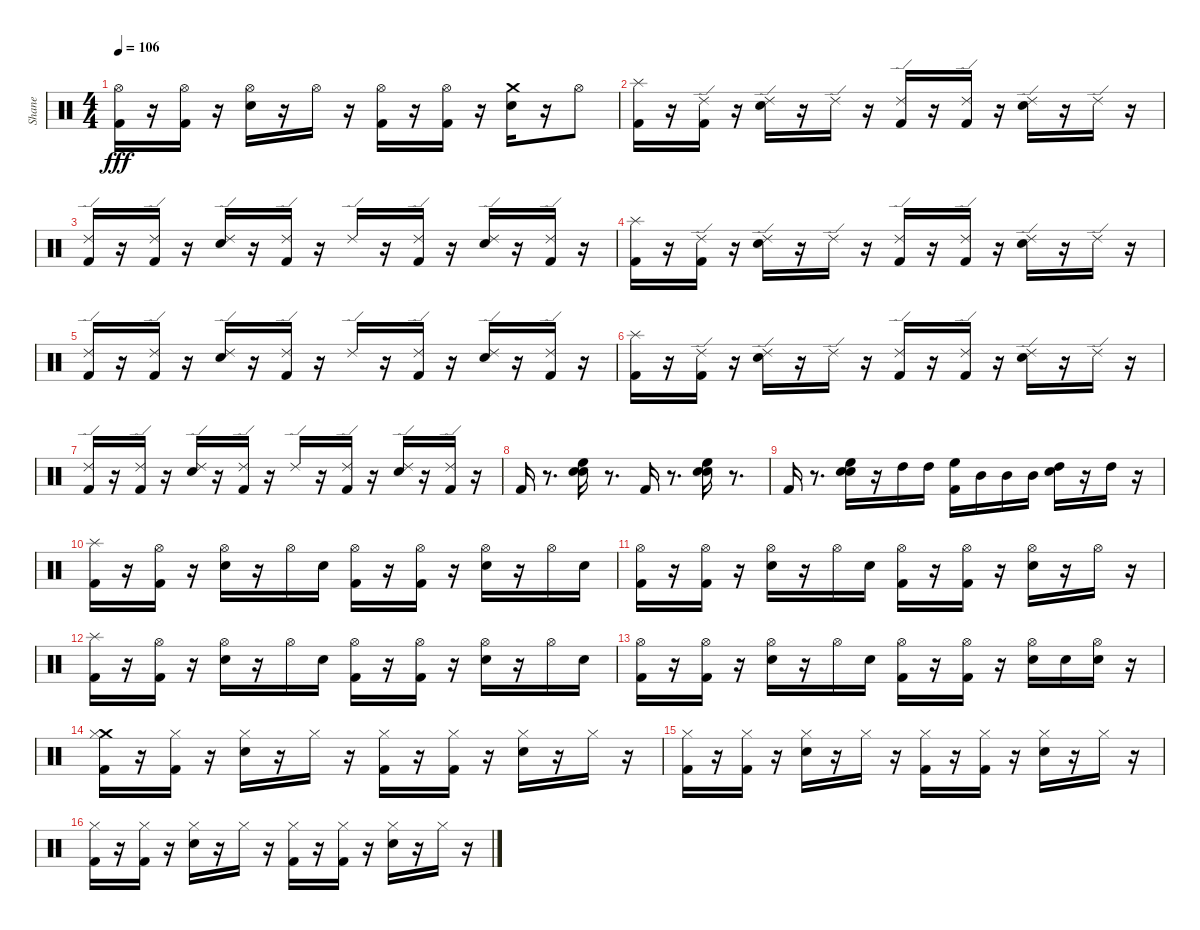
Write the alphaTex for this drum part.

\track ("Shane" "Shane") {instrument percussion}
\staff {score}
\articulation defaults
\ts (4 4)
\tempo 106
\clef neutral
\ks c
("Kick (hit) 2" "Hi-Hat (open)").16{dy fff} r.16 ("Kick (hit) 2" "Hi-Hat (open)").16 r.16 ("Snare (hit) 2" "Hi-Hat (open)").16 r.16 "Hi-Hat (open)".16 r.16 ("Kick (hit) 2" "Hi-Hat (open)").16 r.16 ("Kick (hit) 2" "Hi-Hat (open)").16 r.16 ("Snare (hit) 2" "Crash medium (hit)").16 r.16 "Hi-Hat (open)".8 |
("Splash (hit)" "Kick (hit) 2").16 r.16 ("Kick (hit) 2" "Ride (edge) 2").16 r.16 ("Snare (hit) 2" "Ride (edge) 2").16 r.16 "Ride (edge) 2".16 r.16 ("Kick (hit) 2" "Ride (edge) 2").16 r.16 ("Kick (hit) 2" "Ride (edge) 2").16 r.16 ("Snare (hit) 2" "Ride (edge) 2").16 r.16 "Ride (edge) 2".16 r.16 |
("Ride (edge) 2" "Kick (hit) 2").16 r.16 ("Kick (hit) 2" "Ride (edge) 2").16 r.16 ("Snare (hit) 2" "Ride (edge) 2").16 r.16 ("Kick (hit) 2" "Ride (edge) 2").16 r.16 "Ride (edge) 2".16 r.16 ("Kick (hit) 2" "Ride (edge) 2").16 r.16 ("Snare (hit) 2" "Ride (edge) 2").16 r.16 ("Kick (hit) 2" "Ride (edge) 2").16 r.16 |
("Splash (hit)" "Kick (hit) 2").16 r.16 ("Kick (hit) 2" "Ride (edge) 2").16 r.16 ("Snare (hit) 2" "Ride (edge) 2").16 r.16 "Ride (edge) 2".16 r.16 ("Kick (hit) 2" "Ride (edge) 2").16 r.16 ("Kick (hit) 2" "Ride (edge) 2").16 r.16 ("Snare (hit) 2" "Ride (edge) 2").16 r.16 "Ride (edge) 2".16 r.16 |
("Ride (edge) 2" "Kick (hit) 2").16 r.16 ("Kick (hit) 2" "Ride (edge) 2").16 r.16 ("Snare (hit) 2" "Ride (edge) 2").16 r.16 ("Kick (hit) 2" "Ride (edge) 2").16 r.16 "Ride (edge) 2".16 r.16 ("Kick (hit) 2" "Ride (edge) 2").16 r.16 ("Snare (hit) 2" "Ride (edge) 2").16 r.16 ("Kick (hit) 2" "Ride (edge) 2").16 r.16 |
("Splash (hit)" "Kick (hit) 2").16 r.16 ("Kick (hit) 2" "Ride (edge) 2").16 r.16 ("Snare (hit) 2" "Ride (edge) 2").16 r.16 "Ride (edge) 2".16 r.16 ("Kick (hit) 2" "Ride (edge) 2").16 r.16 ("Kick (hit) 2" "Ride (edge) 2").16 r.16 ("Snare (hit) 2" "Ride (edge) 2").16 r.16 "Ride (edge) 2".16 r.16 |
("Ride (edge) 2" "Kick (hit) 2").16 r.16 ("Kick (hit) 2" "Ride (edge) 2").16 r.16 ("Snare (hit) 2" "Ride (edge) 2").16 r.16 ("Kick (hit) 2" "Ride (edge) 2").16 r.16 "Ride (edge) 2".16 r.16 ("Kick (hit) 2" "Ride (edge) 2").16 r.16 ("Snare (hit) 2" "Ride (edge) 2").16 r.16 ("Kick (hit) 2" "Ride (edge) 2").16 r.16 |
"Kick (hit) 2".16 r.8{d} ("Electric Snare (hit)" "Snare (hit) 2" "High Floor Tom (hit)").16 r.8{d} "Kick (hit) 2".16 r.8{d} ("Electric Snare (hit)" "Snare (hit) 2" "High Floor Tom (hit)").16 r.8{d} |
"Kick (hit) 2".16 r.8{d} ("Electric Snare (hit)" "Snare (hit) 2" "High Floor Tom (hit)").16 r.16 "High Tom (hit)".16 "High Tom (hit)".16 ("Kick (hit) 2" "High Floor Tom (hit)").16 "Mid Tom (hit)".16 "Mid Tom (hit)".16 "Mid Tom (hit)".16 ("High Tom (hit)" "Snare (hit) 2").16 r.16 "High Tom (hit)".16 r.16 |
("Kick (hit) 2" "Splash (hit)").16 r.16 ("Kick (hit) 2" "Hi-Hat (open)").16 r.16 ("Snare (hit) 2" "Hi-Hat (open)").16 r.16 "Hi-Hat (open)".16 "Snare (hit) 2".16 ("Kick (hit) 2" "Hi-Hat (open)").16 r.16 ("Kick (hit) 2" "Hi-Hat (open)").16 r.16 ("Snare (hit) 2" "Hi-Hat (open)").16 r.16 "Hi-Hat (open)".16 "Snare (hit) 2".16 |
("Kick (hit) 2" "Hi-Hat (open)").16 r.16 ("Kick (hit) 2" "Hi-Hat (open)").16 r.16 ("Snare (hit) 2" "Hi-Hat (open)").16 r.16 "Hi-Hat (open)".16 "Snare (hit) 2".16 ("Kick (hit) 2" "Hi-Hat (open)").16 r.16 ("Kick (hit) 2" "Hi-Hat (open)").16 r.16 ("Snare (hit) 2" "Hi-Hat (open)").16 r.16 "Hi-Hat (open)".16 r.16 |
("Kick (hit) 2" "Splash (hit)").16 r.16 ("Kick (hit) 2" "Hi-Hat (open)").16 r.16 ("Snare (hit) 2" "Hi-Hat (open)").16 r.16 "Hi-Hat (open)".16 "Snare (hit) 2".16 ("Kick (hit) 2" "Hi-Hat (open)").16 r.16 ("Kick (hit) 2" "Hi-Hat (open)").16 r.16 ("Snare (hit) 2" "Hi-Hat (open)").16 r.16 "Hi-Hat (open)".16 "Snare (hit) 2".16 |
("Kick (hit) 2" "Hi-Hat (open)").16 r.16 ("Kick (hit) 2" "Hi-Hat (open)").16 r.16 ("Snare (hit) 2" "Hi-Hat (open)").16 r.16 "Hi-Hat (open)".16 "Snare (hit) 2".16 ("Kick (hit) 2" "Hi-Hat (open)").16 r.16 ("Kick (hit) 2" "Hi-Hat (open)").16 r.16 ("Snare (hit) 2" "Hi-Hat (open)").16 "Snare (hit) 2".16 ("Hi-Hat (open)" "Snare (hit) 2").16 r.16 |
("Crash medium (hit)" "Hi-Hat (closed)" "Kick (hit) 2").16 r.16 ("Hi-Hat (closed)" "Kick (hit) 2").16 r.16 ("Hi-Hat (closed)" "Snare (hit) 2").16 r.16 "Hi-Hat (closed)".16 r.16 ("Hi-Hat (closed)" "Kick (hit) 2").16 r.16 ("Hi-Hat (closed)" "Kick (hit) 2").16 r.16 ("Hi-Hat (closed)" "Snare (hit) 2").16 r.16 "Hi-Hat (closed)".16 r.16 |
("Hi-Hat (closed)" "Kick (hit) 2").16 r.16 ("Hi-Hat (closed)" "Kick (hit) 2").16 r.16 ("Hi-Hat (closed)" "Snare (hit) 2").16 r.16 "Hi-Hat (closed)".16 r.16 ("Hi-Hat (closed)" "Kick (hit) 2").16 r.16 ("Hi-Hat (closed)" "Kick (hit) 2").16 r.16 ("Hi-Hat (closed)" "Snare (hit) 2").16 r.16 "Hi-Hat (closed)".16 r.16 |
("Hi-Hat (closed)" "Kick (hit) 2").16 r.16 ("Hi-Hat (closed)" "Kick (hit) 2").16 r.16 ("Hi-Hat (closed)" "Snare (hit) 2").16 r.16 "Hi-Hat (closed)".16 r.16 ("Hi-Hat (closed)" "Kick (hit) 2").16 r.16 ("Hi-Hat (closed)" "Kick (hit) 2").16 r.16 ("Hi-Hat (closed)" "Snare (hit) 2").16 r.16 "Hi-Hat (closed)".16 r.16
